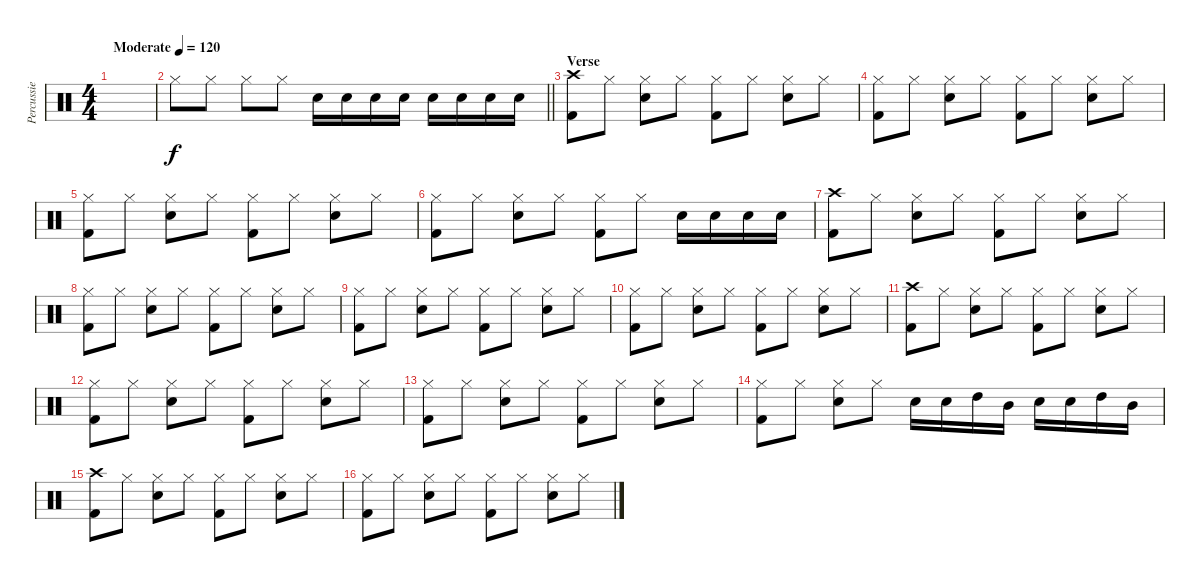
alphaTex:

\track ("Percussie" "Percussie") {instrument percussion}
\staff {score}
\articulation defaults
\ts (4 4)
\tempo (120 "Moderate")
\clef neutral
\ks c
|
\barLineRight lightlight "Hi-Hat (closed)".8 "Hi-Hat (closed)".8 "Hi-Hat (closed)".8 "Hi-Hat (closed)".8 "Electric Snare (hit)".16 "Electric Snare (hit)".16 "Electric Snare (hit)".16 "Electric Snare (hit)".16 "Electric Snare (hit)".16 "Electric Snare (hit)".16 "Electric Snare (hit)".16 "Electric Snare (hit)".16
|
\section ("" "Verse ")
("Crash high (hit)" "Kick (hit) 2").8 "Hi-Hat (closed)".8 ("Hi-Hat (closed)" "Electric Snare (hit)").8 "Hi-Hat (closed)".8 ("Hi-Hat (closed)" "Kick (hit) 2").8 "Hi-Hat (closed)".8 ("Hi-Hat (closed)" "Electric Snare (hit)").8 "Hi-Hat (closed)".8 |
("Hi-Hat (closed)" "Kick (hit) 2").8 "Hi-Hat (closed)".8 ("Hi-Hat (closed)" "Electric Snare (hit)").8 "Hi-Hat (closed)".8 ("Hi-Hat (closed)" "Kick (hit) 2").8 "Hi-Hat (closed)".8 ("Hi-Hat (closed)" "Electric Snare (hit)").8 "Hi-Hat (closed)".8 |
("Hi-Hat (closed)" "Kick (hit) 2").8 "Hi-Hat (closed)".8 ("Hi-Hat (closed)" "Electric Snare (hit)").8 "Hi-Hat (closed)".8 ("Hi-Hat (closed)" "Kick (hit) 2").8 "Hi-Hat (closed)".8 ("Hi-Hat (closed)" "Electric Snare (hit)").8 "Hi-Hat (closed)".8 |
("Hi-Hat (closed)" "Kick (hit) 2").8 "Hi-Hat (closed)".8 ("Hi-Hat (closed)" "Electric Snare (hit)").8 "Hi-Hat (closed)".8 ("Hi-Hat (closed)" "Kick (hit) 2").8 "Hi-Hat (closed)".8 "Electric Snare (hit)".16 "Electric Snare (hit)".16 "Electric Snare (hit)".16 "Electric Snare (hit)".16 |
("Crash high (hit)" "Kick (hit) 2").8 "Hi-Hat (closed)".8 ("Hi-Hat (closed)" "Electric Snare (hit)").8 "Hi-Hat (closed)".8 ("Hi-Hat (closed)" "Kick (hit) 2").8 "Hi-Hat (closed)".8 ("Hi-Hat (closed)" "Electric Snare (hit)").8 "Hi-Hat (closed)".8 |
("Hi-Hat (closed)" "Kick (hit) 2").8 "Hi-Hat (closed)".8 ("Hi-Hat (closed)" "Electric Snare (hit)").8 "Hi-Hat (closed)".8 ("Hi-Hat (closed)" "Kick (hit) 2").8 "Hi-Hat (closed)".8 ("Hi-Hat (closed)" "Electric Snare (hit)").8 "Hi-Hat (closed)".8 |
("Hi-Hat (closed)" "Kick (hit) 2").8 "Hi-Hat (closed)".8 ("Hi-Hat (closed)" "Electric Snare (hit)").8 "Hi-Hat (closed)".8 ("Hi-Hat (closed)" "Kick (hit) 2").8 "Hi-Hat (closed)".8 ("Hi-Hat (closed)" "Electric Snare (hit)").8 "Hi-Hat (closed)".8 |
("Hi-Hat (closed)" "Kick (hit) 2").8 "Hi-Hat (closed)".8 ("Hi-Hat (closed)" "Electric Snare (hit)").8 "Hi-Hat (closed)".8 ("Hi-Hat (closed)" "Kick (hit) 2").8 "Hi-Hat (closed)".8 ("Hi-Hat (closed)" "Electric Snare (hit)").8 "Hi-Hat (closed)".8 |
("Crash high (hit)" "Kick (hit) 2").8 "Hi-Hat (closed)".8 ("Hi-Hat (closed)" "Electric Snare (hit)").8 "Hi-Hat (closed)".8 ("Hi-Hat (closed)" "Kick (hit) 2").8 "Hi-Hat (closed)".8 ("Hi-Hat (closed)" "Electric Snare (hit)").8 "Hi-Hat (closed)".8 |
("Hi-Hat (closed)" "Kick (hit) 2").8 "Hi-Hat (closed)".8 ("Hi-Hat (closed)" "Electric Snare (hit)").8 "Hi-Hat (closed)".8 ("Hi-Hat (closed)" "Kick (hit) 2").8 "Hi-Hat (closed)".8 ("Hi-Hat (closed)" "Electric Snare (hit)").8 "Hi-Hat (closed)".8 |
("Hi-Hat (closed)" "Kick (hit) 2").8 "Hi-Hat (closed)".8 ("Hi-Hat (closed)" "Electric Snare (hit)").8 "Hi-Hat (closed)".8 ("Hi-Hat (closed)" "Kick (hit) 2").8 "Hi-Hat (closed)".8 ("Hi-Hat (closed)" "Electric Snare (hit)").8 "Hi-Hat (closed)".8 |
("Hi-Hat (closed)" "Kick (hit) 2").8 "Hi-Hat (closed)".8 ("Hi-Hat (closed)" "Electric Snare (hit)").8 "Hi-Hat (closed)".8 "Electric Snare (hit)".16 "Electric Snare (hit)".16 "High Tom (hit)".16 "Mid Tom (hit)".16 "Electric Snare (hit)".16 "Electric Snare (hit)".16 "High Tom (hit)".16 "Mid Tom (hit)".16 |
("Crash high (hit)" "Kick (hit) 2").8 "Hi-Hat (closed)".8 ("Hi-Hat (closed)" "Electric Snare (hit)").8 "Hi-Hat (closed)".8 ("Hi-Hat (closed)" "Kick (hit) 2").8 "Hi-Hat (closed)".8 ("Hi-Hat (closed)" "Electric Snare (hit)").8 "Hi-Hat (closed)".8 |
("Hi-Hat (closed)" "Kick (hit) 2").8 "Hi-Hat (closed)".8 ("Hi-Hat (closed)" "Electric Snare (hit)").8 "Hi-Hat (closed)".8 ("Hi-Hat (closed)" "Kick (hit) 2").8 "Hi-Hat (closed)".8 ("Hi-Hat (closed)" "Electric Snare (hit)").8 "Hi-Hat (closed)".8
